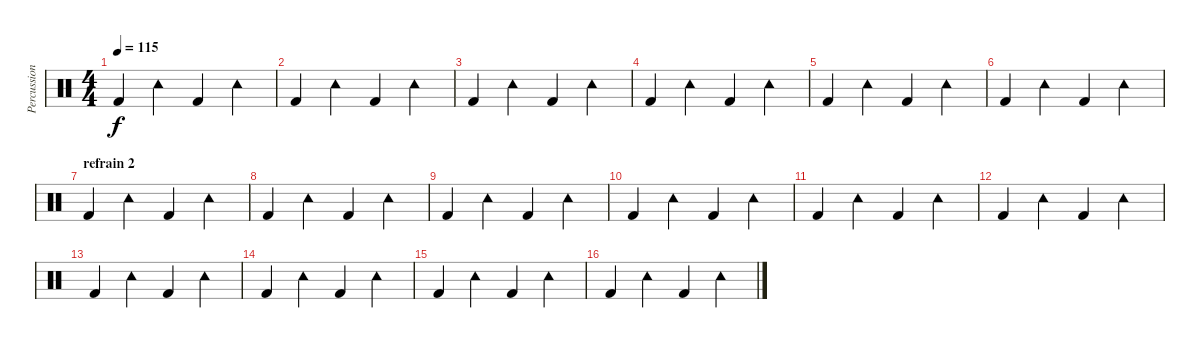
\track ("Percussions" "Percussion") {instrument percussion}
\staff {score}
\articulation defaults
\ts (4 4)
\tempo 115
\clef neutral
\ks c "Kick (hit) 2".4{dy f} "Tambourine (hit)".4 "Kick (hit) 2".4 "Tambourine (hit)".4
|
"Kick (hit) 2".4 "Tambourine (hit)".4 "Kick (hit) 2".4 "Tambourine (hit)".4 |
"Kick (hit) 2".4 "Tambourine (hit)".4 "Kick (hit) 2".4 "Tambourine (hit)".4 |
"Kick (hit) 2".4 "Tambourine (hit)".4 "Kick (hit) 2".4 "Tambourine (hit)".4 |
"Kick (hit) 2".4 "Tambourine (hit)".4 "Kick (hit) 2".4 "Tambourine (hit)".4 |
"Kick (hit) 2".4 "Tambourine (hit)".4 "Kick (hit) 2".4 "Tambourine (hit)".4 |
\section ("" "refrain 2")
"Kick (hit) 2".4 "Tambourine (hit)".4 "Kick (hit) 2".4 "Tambourine (hit)".4 |
"Kick (hit) 2".4 "Tambourine (hit)".4 "Kick (hit) 2".4 "Tambourine (hit)".4 |
"Kick (hit) 2".4 "Tambourine (hit)".4 "Kick (hit) 2".4 "Tambourine (hit)".4 |
"Kick (hit) 2".4 "Tambourine (hit)".4 "Kick (hit) 2".4 "Tambourine (hit)".4 |
"Kick (hit) 2".4 "Tambourine (hit)".4 "Kick (hit) 2".4 "Tambourine (hit)".4 |
"Kick (hit) 2".4 "Tambourine (hit)".4 "Kick (hit) 2".4 "Tambourine (hit)".4 |
"Kick (hit) 2".4 "Tambourine (hit)".4 "Kick (hit) 2".4 "Tambourine (hit)".4 |
"Kick (hit) 2".4 "Tambourine (hit)".4 "Kick (hit) 2".4 "Tambourine (hit)".4 |
"Kick (hit) 2".4 "Tambourine (hit)".4 "Kick (hit) 2".4 "Tambourine (hit)".4 |
"Kick (hit) 2".4 "Tambourine (hit)".4 "Kick (hit) 2".4 "Tambourine (hit)".4
